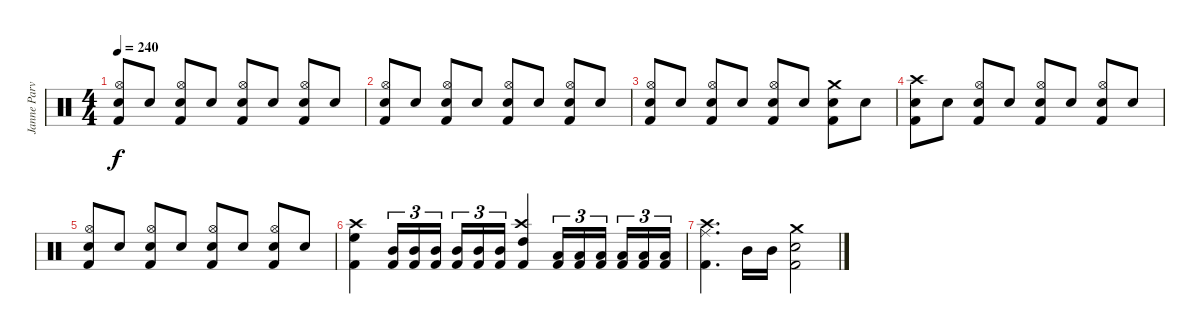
\track ("Janne Parviainen" "Janne Parv") {instrument percussion}
\staff {score}
\articulation defaults
\ts (4 4)
\tempo 240
\clef neutral
\ks c
("Kick (hit) 2" "Hi-Hat (open)" "Snare (hit) 2").8{dy f} "Snare (hit) 2".8 ("Kick (hit) 2" "Hi-Hat (open)" "Snare (hit) 2").8 "Snare (hit) 2".8 ("Kick (hit) 2" "Hi-Hat (open)" "Snare (hit) 2").8 "Snare (hit) 2".8 ("Kick (hit) 2" "Hi-Hat (open)" "Snare (hit) 2").8 "Snare (hit) 2".8 |
("Kick (hit) 2" "Hi-Hat (open)" "Snare (hit) 2").8 "Snare (hit) 2".8 ("Kick (hit) 2" "Hi-Hat (open)" "Snare (hit) 2").8 "Snare (hit) 2".8 ("Kick (hit) 2" "Hi-Hat (open)" "Snare (hit) 2").8 "Snare (hit) 2".8 ("Kick (hit) 2" "Hi-Hat (open)" "Snare (hit) 2").8 "Snare (hit) 2".8 |
("Kick (hit) 2" "Hi-Hat (open)" "Snare (hit) 2").8 "Snare (hit) 2".8 ("Kick (hit) 2" "Hi-Hat (open)" "Snare (hit) 2").8 "Snare (hit) 2".8 ("Kick (hit) 2" "Hi-Hat (open)" "Snare (hit) 2").8 "Snare (hit) 2".8 ("Kick (hit) 2" "Crash medium (hit)" "Snare (hit) 2").8 "Snare (hit) 2".8 |
("Kick (hit) 2" "Crash high (hit)" "Snare (hit) 2").8 "Snare (hit) 2".8 ("Kick (hit) 2" "Hi-Hat (open)" "Snare (hit) 2").8 "Snare (hit) 2".8 ("Kick (hit) 2" "Hi-Hat (open)" "Snare (hit) 2").8 "Snare (hit) 2".8 ("Kick (hit) 2" "Hi-Hat (open)" "Snare (hit) 2").8 "Snare (hit) 2".8 |
("Kick (hit) 2" "Hi-Hat (open)" "Snare (hit) 2").8 "Snare (hit) 2".8 ("Kick (hit) 2" "Hi-Hat (open)" "Snare (hit) 2").8 "Snare (hit) 2".8 ("Kick (hit) 2" "Hi-Hat (open)" "Snare (hit) 2").8 "Snare (hit) 2".8 ("Kick (hit) 2" "Hi-Hat (open)" "Snare (hit) 2").8 "Snare (hit) 2".8 |
("Crash high (hit)" "High Floor Tom (hit)" "Kick (hit) 2").4 ("Mid Tom (hit)" "Kick (hit) 2").16{tu (3 2)} ("Mid Tom (hit)" "Kick (hit) 2").16{tu (3 2)} ("Mid Tom (hit)" "Kick (hit) 2").16{tu (3 2) beam splitsecondary} ("Mid Tom (hit)" "Kick (hit) 2").16{tu (3 2)} ("Mid Tom (hit)" "Kick (hit) 2").16{tu (3 2)} ("Mid Tom (hit)" "Kick (hit) 2").16{tu (3 2)} ("Crash high (hit)" "High Tom (hit)" "Kick (hit) 2").4 ("Low Tom (hit)" "Kick (hit) 2").16{tu (3 2)} ("Low Tom (hit)" "Kick (hit) 2").16{tu (3 2)} ("Low Tom (hit)" "Kick (hit) 2").16{tu (3 2) beam splitsecondary} ("Low Tom (hit)" "Kick (hit) 2").16{tu (3 2)} ("Low Tom (hit)" "Kick (hit) 2").16{tu (3 2)} ("Low Tom (hit)" "Kick (hit) 2").16{tu (3 2)} |
("Ride (middle)" "Crash high (hit)" "Kick (hit) 2").4{d} "Mid Tom (hit)".16 "Mid Tom (hit)".16 ("Crash medium (hit)" "Snare (hit) 2" "Kick (hit) 2").2
